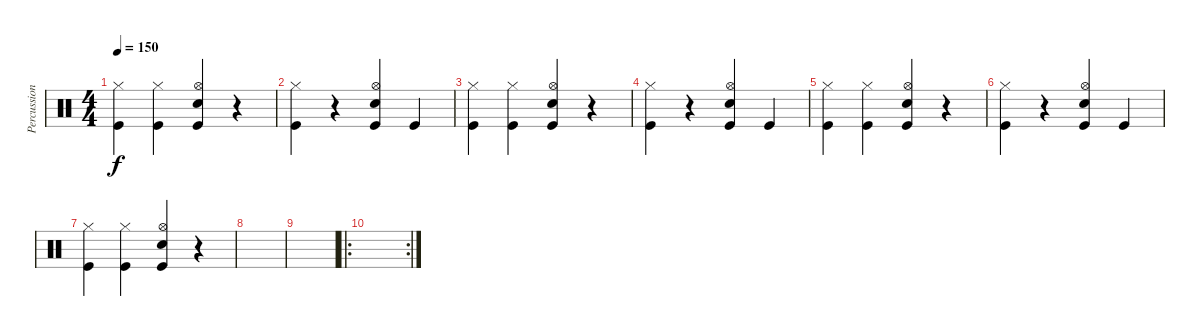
\track ("Percussion" "Percussion") {instrument percussion}
\staff {score}
\articulation defaults
\ts (4 4)
\tempo 150
\clef neutral
\ks c
("Hi-Hat (closed)" "Kick (hit)").4{dy f} ("Hi-Hat (closed)" "Kick (hit)").4 ("Hi-Hat (open)" "Kick (hit)" "Electric Snare (hit)").4 r.4 |
("Hi-Hat (closed)" "Kick (hit)").4 r.4 ("Hi-Hat (open)" "Kick (hit)" "Electric Snare (hit)").4 "Kick (hit)".4 |
("Hi-Hat (closed)" "Kick (hit)").4 ("Hi-Hat (closed)" "Kick (hit)").4 ("Hi-Hat (open)" "Kick (hit)" "Electric Snare (hit)").4 r.4 |
("Hi-Hat (closed)" "Kick (hit)").4 r.4 ("Hi-Hat (open)" "Kick (hit)" "Electric Snare (hit)").4 "Kick (hit)".4 |
("Hi-Hat (closed)" "Kick (hit)").4 ("Hi-Hat (closed)" "Kick (hit)").4 ("Hi-Hat (open)" "Kick (hit)" "Electric Snare (hit)").4 r.4 |
("Hi-Hat (closed)" "Kick (hit)").4 r.4 ("Hi-Hat (open)" "Kick (hit)" "Electric Snare (hit)").4 "Kick (hit)".4 |
("Hi-Hat (closed)" "Kick (hit)").4 ("Hi-Hat (closed)" "Kick (hit)").4 ("Hi-Hat (open)" "Kick (hit)" "Electric Snare (hit)").4 r.4 |
|
|
\ro
\rc 2
